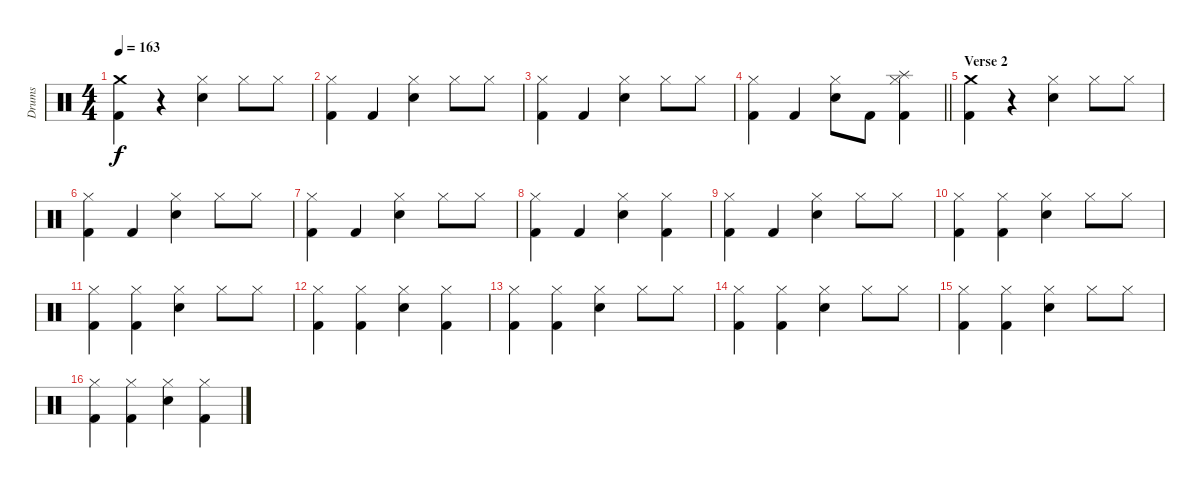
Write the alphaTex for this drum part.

\track ("Drums" "Drums") {instrument percussion}
\staff {score}
\articulation defaults
\ts (4 4)
\tempo 163
\clef neutral
\ks c
("Crash medium (hit)" "Kick (hit) 2").4{dy f} r.4 ("Snare (hit) 2" "Hi-Hat (closed)").4 "Hi-Hat (closed)".8 "Hi-Hat (closed)".8 |
("Kick (hit) 2" "Hi-Hat (closed)").4 "Kick (hit) 2".4 ("Snare (hit) 2" "Hi-Hat (closed)").4 "Hi-Hat (closed)".8 "Hi-Hat (closed)".8 |
("Kick (hit) 2" "Hi-Hat (closed)").4 "Kick (hit) 2".4 ("Snare (hit) 2" "Hi-Hat (closed)").4 "Hi-Hat (closed)".8 "Hi-Hat (closed)".8 |
\barLineRight lightlight
("Kick (hit) 2" "Hi-Hat (closed)").4 "Kick (hit) 2".4 ("Snare (hit) 2" "Hi-Hat (closed)").8 "Kick (hit) 2".8 ("Splash (hit)" "Kick (hit) 2" "Hi-Hat (closed)").4 |
\section ("" "Verse 2")
("Crash medium (hit)" "Kick (hit) 2").4 r.4 ("Snare (hit) 2" "Hi-Hat (closed)").4 "Hi-Hat (closed)".8 "Hi-Hat (closed)".8 |
("Kick (hit) 2" "Hi-Hat (closed)").4 "Kick (hit) 2".4 ("Snare (hit) 2" "Hi-Hat (closed)").4 "Hi-Hat (closed)".8 "Hi-Hat (closed)".8 |
("Kick (hit) 2" "Hi-Hat (closed)").4 "Kick (hit) 2".4 ("Snare (hit) 2" "Hi-Hat (closed)").4 "Hi-Hat (closed)".8 "Hi-Hat (closed)".8 |
("Kick (hit) 2" "Hi-Hat (closed)").4 "Kick (hit) 2".4 ("Snare (hit) 2" "Hi-Hat (closed)").4 ("Kick (hit) 2" "Hi-Hat (closed)").4 |
("Kick (hit) 2" "Hi-Hat (closed)").4 "Kick (hit) 2".4 ("Snare (hit) 2" "Hi-Hat (closed)").4 "Hi-Hat (closed)".8 "Hi-Hat (closed)".8 |
("Kick (hit) 2" "Hi-Hat (closed)").4 ("Kick (hit) 2" "Hi-Hat (closed)").4 ("Snare (hit) 2" "Hi-Hat (closed)").4 "Hi-Hat (closed)".8 "Hi-Hat (closed)".8 |
("Kick (hit) 2" "Hi-Hat (closed)").4 ("Kick (hit) 2" "Hi-Hat (closed)").4 ("Snare (hit) 2" "Hi-Hat (closed)").4 "Hi-Hat (closed)".8 "Hi-Hat (closed)".8 |
("Kick (hit) 2" "Hi-Hat (closed)").4 ("Kick (hit) 2" "Hi-Hat (closed)").4 ("Snare (hit) 2" "Hi-Hat (closed)").4 ("Kick (hit) 2" "Hi-Hat (closed)").4 |
("Kick (hit) 2" "Hi-Hat (closed)").4 ("Kick (hit) 2" "Hi-Hat (closed)").4 ("Snare (hit) 2" "Hi-Hat (closed)").4 "Hi-Hat (closed)".8 "Hi-Hat (closed)".8 |
("Kick (hit) 2" "Hi-Hat (closed)").4 ("Kick (hit) 2" "Hi-Hat (closed)").4 ("Snare (hit) 2" "Hi-Hat (closed)").4 "Hi-Hat (closed)".8 "Hi-Hat (closed)".8 |
("Kick (hit) 2" "Hi-Hat (closed)").4 ("Kick (hit) 2" "Hi-Hat (closed)").4 ("Snare (hit) 2" "Hi-Hat (closed)").4 "Hi-Hat (closed)".8 "Hi-Hat (closed)".8 |
("Kick (hit) 2" "Hi-Hat (closed)").4 ("Kick (hit) 2" "Hi-Hat (closed)").4 ("Snare (hit) 2" "Hi-Hat (closed)").4 ("Kick (hit) 2" "Hi-Hat (closed)").4
